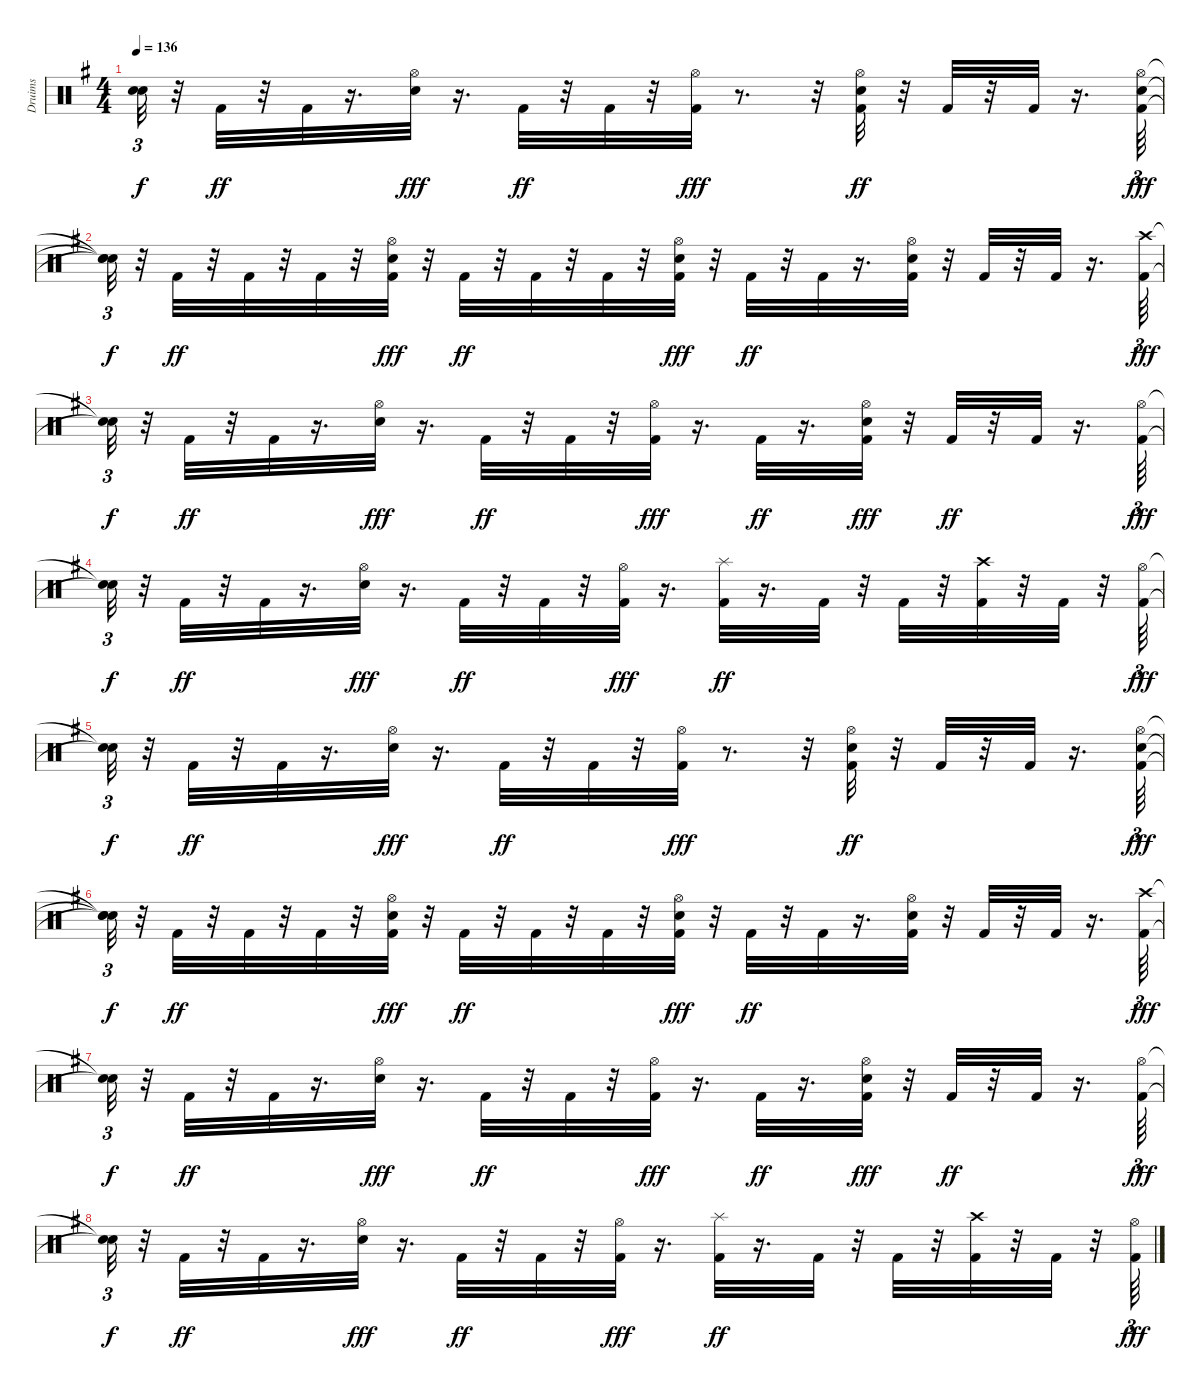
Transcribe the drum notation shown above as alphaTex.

\track ("Druims" "Druims") {instrument percussion}
\staff {score}
\articulation defaults
\ts (4 4)
\tempo 136
\clef neutral
\ks eminor
("Snare (hit)"{t} "Snare (hit)"{t}).32{tu (3 2) dy f} r.32 "Kick (hit) 2".32{dy ff} r.32 "Kick (hit) 2".32 r.16{d} ("Hi-Hat (open)" "Snare (hit) 2").32{dy fff} r.16{d} "Kick (hit) 2".32{dy ff} r.32 "Kick (hit) 2".32 r.32 ("Kick (hit) 2" "Hi-Hat (open)").32{dy fff} r.8{d} r.32 ("Snare (hit) 2" "Hi-Hat (open)" "Kick (hit) 2").32{dy ff} r.32 "Kick (hit) 2".32 r.32 "Kick (hit) 2".32 r.16{d} ("Kick (hit) 2" "Snare (hit)" "Hi-Hat (open)").64{tu (3 2) dy fff} |
("Snare (hit)"{t} "Snare (hit)"{t} "Snare (hit)"{t}).32{tu (3 2) dy f} r.32 "Kick (hit) 2".32{dy ff} r.32 "Kick (hit) 2".32 r.32 "Kick (hit) 2".32 r.32 ("Hi-Hat (open)" "Kick (hit) 2" "Snare (hit) 2").32{dy fff} r.32 "Kick (hit) 2".32{dy ff} r.32 "Kick (hit) 2".32 r.32 "Kick (hit) 2".32 r.32 ("Snare (hit) 2" "Kick (hit) 2" "Hi-Hat (open)").32{dy fff} r.32 "Kick (hit) 2".32{dy ff} r.32 "Kick (hit) 2".32 r.16{d} ("Hi-Hat (open)" "Snare (hit) 2" "Kick (hit) 2").32 r.32 "Kick (hit) 2".32 r.32 "Kick (hit) 2".32 r.16{d} ("Kick (hit) 2" "Crash high (hit)").64{tu (3 2) dy fff} |
("Snare (hit)"{t} "Snare (hit)"{t}).32{tu (3 2) dy f} r.32 "Kick (hit) 2".32{dy ff} r.32 "Kick (hit) 2".32 r.16{d} ("Hi-Hat (open)" "Snare (hit) 2").32{dy fff} r.16{d} "Kick (hit) 2".32{dy ff} r.32 "Kick (hit) 2".32 r.32 ("Kick (hit) 2" "Hi-Hat (open)").32{dy fff} r.16{d} "Kick (hit) 2".32{dy ff} r.16{d} ("Hi-Hat (open)" "Kick (hit) 2" "Snare (hit) 2").32{dy fff} r.32 "Kick (hit) 2".32{dy ff} r.32 "Kick (hit) 2".32 r.16{d} ("Kick (hit) 2" "Hi-Hat (open)").64{tu (3 2) dy fff} |
("Snare (hit)"{t} "Snare (hit)"{t}).32{tu (3 2) dy f} r.32 "Kick (hit) 2".32{dy ff} r.32 "Kick (hit) 2".32 r.16{d} ("Hi-Hat (open)" "Snare (hit) 2").32{dy fff} r.16{d} "Kick (hit) 2".32{dy ff} r.32 "Kick (hit) 2".32 r.32 ("Kick (hit) 2" "Hi-Hat (open)").32{dy fff} r.16{d} ("Splash (hit)" "Kick (hit) 2").32{dy ff} r.16{d} "Kick (hit) 2".32 r.32 "Kick (hit) 2".32 r.32 ("Crash high (hit)" "Kick (hit) 2").32 r.32 "Kick (hit) 2".32 r.32 ("Kick (hit) 2" "Hi-Hat (open)").64{tu (3 2) dy fff} |
("Snare (hit)"{t} "Snare (hit)"{t}).32{tu (3 2) dy f} r.32 "Kick (hit) 2".32{dy ff} r.32 "Kick (hit) 2".32 r.16{d} ("Hi-Hat (open)" "Snare (hit) 2").32{dy fff} r.16{d} "Kick (hit) 2".32{dy ff} r.32 "Kick (hit) 2".32 r.32 ("Kick (hit) 2" "Hi-Hat (open)").32{dy fff} r.8{d} r.32 ("Snare (hit) 2" "Hi-Hat (open)" "Kick (hit) 2").32{dy ff} r.32 "Kick (hit) 2".32 r.32 "Kick (hit) 2".32 r.16{d} ("Kick (hit) 2" "Snare (hit)" "Hi-Hat (open)").64{tu (3 2) dy fff} |
("Snare (hit)"{t} "Snare (hit)"{t} "Snare (hit)"{t}).32{tu (3 2) dy f} r.32 "Kick (hit) 2".32{dy ff} r.32 "Kick (hit) 2".32 r.32 "Kick (hit) 2".32 r.32 ("Hi-Hat (open)" "Kick (hit) 2" "Snare (hit) 2").32{dy fff} r.32 "Kick (hit) 2".32{dy ff} r.32 "Kick (hit) 2".32 r.32 "Kick (hit) 2".32 r.32 ("Snare (hit) 2" "Kick (hit) 2" "Hi-Hat (open)").32{dy fff} r.32 "Kick (hit) 2".32{dy ff} r.32 "Kick (hit) 2".32 r.16{d} ("Hi-Hat (open)" "Snare (hit) 2" "Kick (hit) 2").32 r.32 "Kick (hit) 2".32 r.32 "Kick (hit) 2".32 r.16{d} ("Kick (hit) 2" "Crash high (hit)").64{tu (3 2) dy fff} |
("Snare (hit)"{t} "Snare (hit)"{t}).32{tu (3 2) dy f} r.32 "Kick (hit) 2".32{dy ff} r.32 "Kick (hit) 2".32 r.16{d} ("Hi-Hat (open)" "Snare (hit) 2").32{dy fff} r.16{d} "Kick (hit) 2".32{dy ff} r.32 "Kick (hit) 2".32 r.32 ("Kick (hit) 2" "Hi-Hat (open)").32{dy fff} r.16{d} "Kick (hit) 2".32{dy ff} r.16{d} ("Hi-Hat (open)" "Kick (hit) 2" "Snare (hit) 2").32{dy fff} r.32 "Kick (hit) 2".32{dy ff} r.32 "Kick (hit) 2".32 r.16{d} ("Kick (hit) 2" "Hi-Hat (open)").64{tu (3 2) dy fff} |
("Snare (hit)"{t} "Snare (hit)"{t}).32{tu (3 2) dy f} r.32 "Kick (hit) 2".32{dy ff} r.32 "Kick (hit) 2".32 r.16{d} ("Hi-Hat (open)" "Snare (hit) 2").32{dy fff} r.16{d} "Kick (hit) 2".32{dy ff} r.32 "Kick (hit) 2".32 r.32 ("Kick (hit) 2" "Hi-Hat (open)").32{dy fff} r.16{d} ("Splash (hit)" "Kick (hit) 2").32{dy ff} r.16{d} "Kick (hit) 2".32 r.32 "Kick (hit) 2".32 r.32 ("Crash high (hit)" "Kick (hit) 2").32 r.32 "Kick (hit) 2".32 r.32 ("Kick (hit) 2" "Hi-Hat (open)").64{tu (3 2) dy fff}
